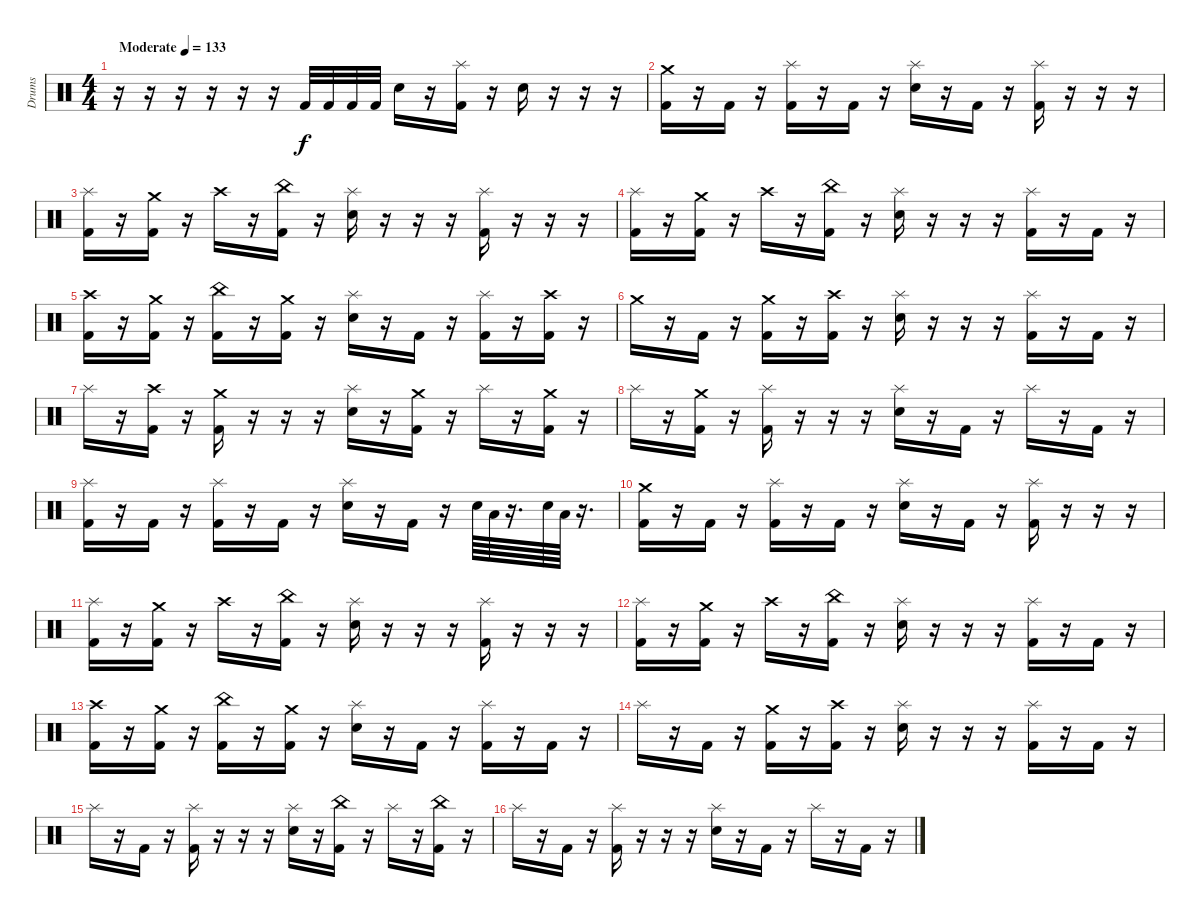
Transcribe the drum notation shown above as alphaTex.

\track ("Drums" "Drums") {instrument percussion}
\staff {score}
\articulation defaults
\ts (4 4)
\section ("" "")
\tempo (133 "Moderate")
\clef neutral
\ks c
r.16{dy f} r.16 r.16 r.16 r.16 r.16 "Kick (hit) 2".32 "Kick (hit) 2".32 "Kick (hit) 2".32 "Kick (hit) 2".32 "Electric Snare (hit)".16 r.16 ("Splash (hit)" "Kick (hit) 2").16 r.16 "Electric Snare (hit)".16 r.16 r.16 r.16 |
("Crash medium (hit)" "Kick (hit) 2").16 r.16 "Kick (hit) 2".16 r.16 ("Splash (hit)" "Kick (hit) 2").16 r.16 "Kick (hit) 2".16 r.16 ("Splash (hit)" "Electric Snare (hit)").16 r.16 "Kick (hit) 2".16 r.16 ("Splash (hit)" "Kick (hit) 2").16 r.16 r.16 r.16 |
("Splash (hit)" "Kick (hit) 2").16 r.16 ("Crash medium (hit)" "Kick (hit) 2").16 r.16 "Crash high (hit)".16 r.16 ("China (hit)" "Kick (hit) 2").16 r.16 ("Splash (hit)" "Electric Snare (hit)").16 r.16 r.16 r.16 ("Splash (hit)" "Kick (hit) 2").16 r.16 r.16 r.16 |
("Splash (hit)" "Kick (hit) 2").16 r.16 ("Crash medium (hit)" "Kick (hit) 2").16 r.16 "Crash high (hit)".16 r.16 ("China (hit)" "Kick (hit) 2").16 r.16 ("Splash (hit)" "Electric Snare (hit)").16 r.16 r.16 r.16 ("Splash (hit)" "Kick (hit) 2").16 r.16 "Kick (hit) 2".16 r.16 |
("Crash high (hit)" "Kick (hit) 2").16 r.16 ("Crash medium (hit)" "Kick (hit) 2").16 r.16 ("China (hit)" "Kick (hit) 2").16 r.16 ("Crash medium (hit)" "Kick (hit) 2").16 r.16 ("Splash (hit)" "Electric Snare (hit)").16 r.16 "Kick (hit) 2".16 r.16 ("Splash (hit)" "Kick (hit) 2").16 r.16 ("Crash high (hit)" "Kick (hit) 2").16 r.16 |
"Crash medium (hit)".16 r.16 "Kick (hit) 2".16 r.16 ("Crash medium (hit)" "Kick (hit) 2").16 r.16 ("Crash high (hit)" "Kick (hit) 2").16 r.16 ("Splash (hit)" "Electric Snare (hit)").16 r.16 r.16 r.16 ("Splash (hit)" "Kick (hit) 2").16 r.16 "Kick (hit) 2".16 r.16 |
"Splash (hit)".16 r.16 ("Crash high (hit)" "Kick (hit) 2").16 r.16 ("Crash medium (hit)" "Kick (hit) 2").16 r.16 r.16 r.16 ("Splash (hit)" "Electric Snare (hit)").16 r.16 ("Crash medium (hit)" "Kick (hit) 2").16 r.16 "Splash (hit)".16 r.16 ("Crash medium (hit)" "Kick (hit) 2").16 r.16 |
"Splash (hit)".16 r.16 ("Crash medium (hit)" "Kick (hit) 2").16 r.16 ("Splash (hit)" "Kick (hit) 2").16 r.16 r.16 r.16 ("Splash (hit)" "Electric Snare (hit)").16 r.16 "Kick (hit) 2".16 r.16 "Splash (hit)".16 r.16 "Kick (hit) 2".16 r.16 |
("Splash (hit)" "Kick (hit) 2").16 r.16 "Kick (hit) 2".16 r.16 ("Splash (hit)" "Kick (hit) 2").16 r.16 "Kick (hit) 2".16 r.16 ("Splash (hit)" "Electric Snare (hit)").16 r.16 "Kick (hit) 2".16 r.16 "Electric Snare (hit)".64 "Low Tom (hit)".64 r.16{d} "Electric Snare (hit)".64 "Low Tom (hit)".64 r.16{d} |
("Crash medium (hit)" "Kick (hit) 2").16 r.16 "Kick (hit) 2".16 r.16 ("Splash (hit)" "Kick (hit) 2").16 r.16 "Kick (hit) 2".16 r.16 ("Splash (hit)" "Electric Snare (hit)").16 r.16 "Kick (hit) 2".16 r.16 ("Splash (hit)" "Kick (hit) 2").16 r.16 r.16 r.16 |
("Splash (hit)" "Kick (hit) 2").16 r.16 ("Crash medium (hit)" "Kick (hit) 2").16 r.16 "Crash high (hit)".16 r.16 ("China (hit)" "Kick (hit) 2").16 r.16 ("Splash (hit)" "Electric Snare (hit)").16 r.16 r.16 r.16 ("Splash (hit)" "Kick (hit) 2").16 r.16 r.16 r.16 |
("Splash (hit)" "Kick (hit) 2").16 r.16 ("Crash medium (hit)" "Kick (hit) 2").16 r.16 "Crash high (hit)".16 r.16 ("China (hit)" "Kick (hit) 2").16 r.16 ("Splash (hit)" "Electric Snare (hit)").16 r.16 r.16 r.16 ("Splash (hit)" "Kick (hit) 2").16 r.16 "Kick (hit) 2".16 r.16 |
("Crash high (hit)" "Kick (hit) 2").16 r.16 ("Crash medium (hit)" "Kick (hit) 2").16 r.16 ("China (hit)" "Kick (hit) 2").16 r.16 ("Crash medium (hit)" "Kick (hit) 2").16 r.16 ("Splash (hit)" "Electric Snare (hit)").16 r.16 "Kick (hit) 2".16 r.16 ("Splash (hit)" "Kick (hit) 2").16 r.16 "Kick (hit) 2".16 r.16 |
"Splash (hit)".16 r.16 "Kick (hit) 2".16 r.16 ("Crash medium (hit)" "Kick (hit) 2").16 r.16 ("Crash high (hit)" "Kick (hit) 2").16 r.16 ("Splash (hit)" "Electric Snare (hit)").16 r.16 r.16 r.16 ("Splash (hit)" "Kick (hit) 2").16 r.16 "Kick (hit) 2".16 r.16 |
"Splash (hit)".16 r.16 "Kick (hit) 2".16 r.16 ("Splash (hit)" "Kick (hit) 2").16 r.16 r.16 r.16 ("Splash (hit)" "Electric Snare (hit)").16 r.16 ("China (hit)" "Kick (hit) 2").16 r.16 "Splash (hit)".16 r.16 ("China (hit)" "Kick (hit) 2").16 r.16 |
"Splash (hit)".16 r.16 "Kick (hit) 2".16 r.16 ("Splash (hit)" "Kick (hit) 2").16 r.16 r.16 r.16 ("Splash (hit)" "Electric Snare (hit)").16 r.16 "Kick (hit) 2".16 r.16 "Splash (hit)".16 r.16 "Kick (hit) 2".16 r.16
